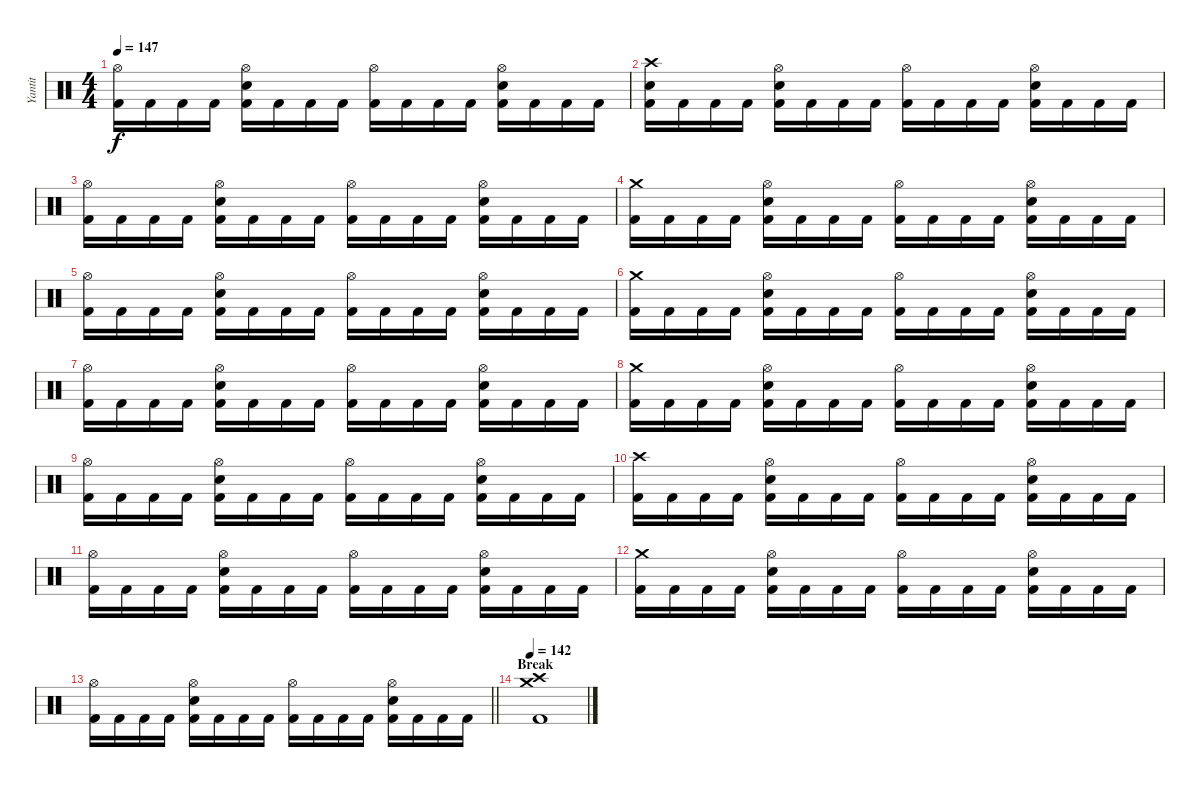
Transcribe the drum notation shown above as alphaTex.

\track ("Yantit" "Yantit") {instrument percussion}
\staff {score}
\articulation defaults
\ts (4 4)
\tempo 147
\clef neutral
\ks c
("Hi-Hat (open)" "Kick (hit) 2").16{dy f} "Kick (hit) 2".16 "Kick (hit) 2".16 "Kick (hit) 2".16 ("Hi-Hat (open)" "Electric Snare (hit)" "Kick (hit) 2").16 "Kick (hit) 2".16 "Kick (hit) 2".16 "Kick (hit) 2".16 ("Hi-Hat (open)" "Kick (hit) 2").16 "Kick (hit) 2".16 "Kick (hit) 2".16 "Kick (hit) 2".16 ("Hi-Hat (open)" "Electric Snare (hit)" "Kick (hit) 2").16 "Kick (hit) 2".16 "Kick (hit) 2".16 "Kick (hit) 2".16 |
("Crash high (hit)" "Electric Snare (hit)" "Kick (hit) 2").16 "Kick (hit) 2".16 "Kick (hit) 2".16 "Kick (hit) 2".16 ("Hi-Hat (open)" "Electric Snare (hit)" "Kick (hit) 2").16 "Kick (hit) 2".16 "Kick (hit) 2".16 "Kick (hit) 2".16 ("Hi-Hat (open)" "Kick (hit) 2").16 "Kick (hit) 2".16 "Kick (hit) 2".16 "Kick (hit) 2".16 ("Hi-Hat (open)" "Electric Snare (hit)" "Kick (hit) 2").16 "Kick (hit) 2".16 "Kick (hit) 2".16 "Kick (hit) 2".16 |
("Hi-Hat (open)" "Kick (hit) 2").16 "Kick (hit) 2".16 "Kick (hit) 2".16 "Kick (hit) 2".16 ("Hi-Hat (open)" "Electric Snare (hit)" "Kick (hit) 2").16 "Kick (hit) 2".16 "Kick (hit) 2".16 "Kick (hit) 2".16 ("Hi-Hat (open)" "Kick (hit) 2").16 "Kick (hit) 2".16 "Kick (hit) 2".16 "Kick (hit) 2".16 ("Hi-Hat (open)" "Electric Snare (hit)" "Kick (hit) 2").16 "Kick (hit) 2".16 "Kick (hit) 2".16 "Kick (hit) 2".16 |
("Crash medium (hit)" "Kick (hit) 2").16 "Kick (hit) 2".16 "Kick (hit) 2".16 "Kick (hit) 2".16 ("Hi-Hat (open)" "Electric Snare (hit)" "Kick (hit) 2").16 "Kick (hit) 2".16 "Kick (hit) 2".16 "Kick (hit) 2".16 ("Hi-Hat (open)" "Kick (hit) 2").16 "Kick (hit) 2".16 "Kick (hit) 2".16 "Kick (hit) 2".16 ("Hi-Hat (open)" "Electric Snare (hit)" "Kick (hit) 2").16 "Kick (hit) 2".16 "Kick (hit) 2".16 "Kick (hit) 2".16 |
("Hi-Hat (open)" "Kick (hit) 2").16 "Kick (hit) 2".16 "Kick (hit) 2".16 "Kick (hit) 2".16 ("Hi-Hat (open)" "Electric Snare (hit)" "Kick (hit) 2").16 "Kick (hit) 2".16 "Kick (hit) 2".16 "Kick (hit) 2".16 ("Hi-Hat (open)" "Kick (hit) 2").16 "Kick (hit) 2".16 "Kick (hit) 2".16 "Kick (hit) 2".16 ("Hi-Hat (open)" "Electric Snare (hit)" "Kick (hit) 2").16 "Kick (hit) 2".16 "Kick (hit) 2".16 "Kick (hit) 2".16 |
("Crash medium (hit)" "Kick (hit) 2").16 "Kick (hit) 2".16 "Kick (hit) 2".16 "Kick (hit) 2".16 ("Hi-Hat (open)" "Electric Snare (hit)" "Kick (hit) 2").16 "Kick (hit) 2".16 "Kick (hit) 2".16 "Kick (hit) 2".16 ("Hi-Hat (open)" "Kick (hit) 2").16 "Kick (hit) 2".16 "Kick (hit) 2".16 "Kick (hit) 2".16 ("Hi-Hat (open)" "Electric Snare (hit)" "Kick (hit) 2").16 "Kick (hit) 2".16 "Kick (hit) 2".16 "Kick (hit) 2".16 |
("Hi-Hat (open)" "Kick (hit) 2").16 "Kick (hit) 2".16 "Kick (hit) 2".16 "Kick (hit) 2".16 ("Hi-Hat (open)" "Electric Snare (hit)" "Kick (hit) 2").16 "Kick (hit) 2".16 "Kick (hit) 2".16 "Kick (hit) 2".16 ("Hi-Hat (open)" "Kick (hit) 2").16 "Kick (hit) 2".16 "Kick (hit) 2".16 "Kick (hit) 2".16 ("Hi-Hat (open)" "Electric Snare (hit)" "Kick (hit) 2").16 "Kick (hit) 2".16 "Kick (hit) 2".16 "Kick (hit) 2".16 |
("Crash medium (hit)" "Kick (hit) 2").16 "Kick (hit) 2".16 "Kick (hit) 2".16 "Kick (hit) 2".16 ("Hi-Hat (open)" "Electric Snare (hit)" "Kick (hit) 2").16 "Kick (hit) 2".16 "Kick (hit) 2".16 "Kick (hit) 2".16 ("Hi-Hat (open)" "Kick (hit) 2").16 "Kick (hit) 2".16 "Kick (hit) 2".16 "Kick (hit) 2".16 ("Hi-Hat (open)" "Electric Snare (hit)" "Kick (hit) 2").16 "Kick (hit) 2".16 "Kick (hit) 2".16 "Kick (hit) 2".16 |
("Hi-Hat (open)" "Kick (hit) 2").16 "Kick (hit) 2".16 "Kick (hit) 2".16 "Kick (hit) 2".16 ("Hi-Hat (open)" "Electric Snare (hit)" "Kick (hit) 2").16 "Kick (hit) 2".16 "Kick (hit) 2".16 "Kick (hit) 2".16 ("Hi-Hat (open)" "Kick (hit) 2").16 "Kick (hit) 2".16 "Kick (hit) 2".16 "Kick (hit) 2".16 ("Hi-Hat (open)" "Electric Snare (hit)" "Kick (hit) 2").16 "Kick (hit) 2".16 "Kick (hit) 2".16 "Kick (hit) 2".16 |
("Crash high (hit)" "Kick (hit) 2").16 "Kick (hit) 2".16 "Kick (hit) 2".16 "Kick (hit) 2".16 ("Hi-Hat (open)" "Electric Snare (hit)" "Kick (hit) 2").16 "Kick (hit) 2".16 "Kick (hit) 2".16 "Kick (hit) 2".16 ("Hi-Hat (open)" "Kick (hit) 2").16 "Kick (hit) 2".16 "Kick (hit) 2".16 "Kick (hit) 2".16 ("Hi-Hat (open)" "Electric Snare (hit)" "Kick (hit) 2").16 "Kick (hit) 2".16 "Kick (hit) 2".16 "Kick (hit) 2".16 |
("Hi-Hat (open)" "Kick (hit) 2").16 "Kick (hit) 2".16 "Kick (hit) 2".16 "Kick (hit) 2".16 ("Hi-Hat (open)" "Electric Snare (hit)" "Kick (hit) 2").16 "Kick (hit) 2".16 "Kick (hit) 2".16 "Kick (hit) 2".16 ("Hi-Hat (open)" "Kick (hit) 2").16 "Kick (hit) 2".16 "Kick (hit) 2".16 "Kick (hit) 2".16 ("Hi-Hat (open)" "Electric Snare (hit)" "Kick (hit) 2").16 "Kick (hit) 2".16 "Kick (hit) 2".16 "Kick (hit) 2".16 |
("Crash medium (hit)" "Kick (hit) 2").16 "Kick (hit) 2".16 "Kick (hit) 2".16 "Kick (hit) 2".16 ("Hi-Hat (open)" "Electric Snare (hit)" "Kick (hit) 2").16 "Kick (hit) 2".16 "Kick (hit) 2".16 "Kick (hit) 2".16 ("Hi-Hat (open)" "Kick (hit) 2").16 "Kick (hit) 2".16 "Kick (hit) 2".16 "Kick (hit) 2".16 ("Hi-Hat (open)" "Electric Snare (hit)" "Kick (hit) 2").16 "Kick (hit) 2".16 "Kick (hit) 2".16 "Kick (hit) 2".16 |
\barLineRight lightlight
("Hi-Hat (open)" "Kick (hit) 2").16 "Kick (hit) 2".16 "Kick (hit) 2".16 "Kick (hit) 2".16 ("Hi-Hat (open)" "Electric Snare (hit)" "Kick (hit) 2").16 "Kick (hit) 2".16 "Kick (hit) 2".16 "Kick (hit) 2".16 ("Hi-Hat (open)" "Kick (hit) 2").16 "Kick (hit) 2".16 "Kick (hit) 2".16 "Kick (hit) 2".16 ("Hi-Hat (open)" "Electric Snare (hit)" "Kick (hit) 2").16 "Kick (hit) 2".16 "Kick (hit) 2".16 "Kick (hit) 2".16 |
\section ("" "Break")
\tempo 142
("Crash high (hit)" "Crash medium (hit)" "Kick (hit) 2").1
